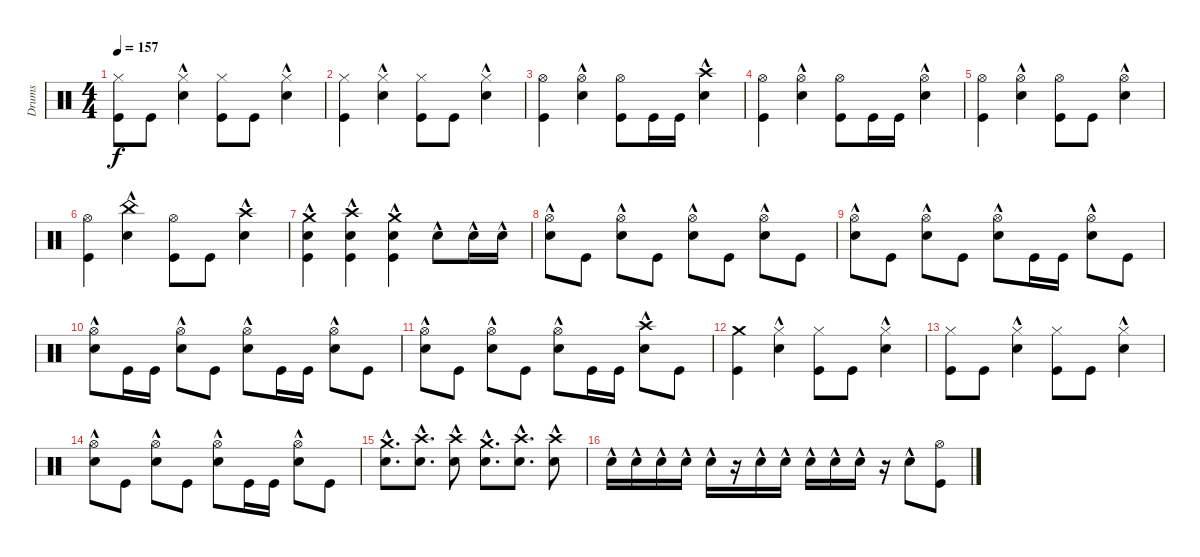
\track ("Drums" "Drums") {solo instrument percussion}
\staff {score}
\articulation defaults
\ts (4 4)
\tempo 157
\clef neutral
\ks c
("Kick (hit)" "Hi-Hat (closed)").8{dy f} "Kick (hit)".8 ("Snare (hit) 2"{hac} "Hi-Hat (closed)").4 ("Kick (hit)" "Hi-Hat (closed)").8 "Kick (hit)".8 ("Snare (hit) 2"{hac} "Hi-Hat (closed)").4 |
("Kick (hit)" "Hi-Hat (closed)").4 ("Snare (hit) 2"{hac} "Hi-Hat (closed)").4 ("Kick (hit)" "Hi-Hat (closed)").8 "Kick (hit)".8 ("Snare (hit) 2"{hac} "Hi-Hat (closed)").4 |
("Kick (hit)" "Hi-Hat (open)").4 ("Snare (hit) 2"{hac} "Hi-Hat (open)").4 ("Kick (hit)" "Hi-Hat (open)").8 "Kick (hit)".16 "Kick (hit)".16 ("Snare (hit) 2"{hac} "Crash high (hit)"{hac}).4 |
("Kick (hit)" "Hi-Hat (open)").4 ("Snare (hit) 2"{hac} "Hi-Hat (open)").4 ("Kick (hit)" "Hi-Hat (open)").8 "Kick (hit)".16 "Kick (hit)".16 ("Snare (hit) 2"{hac} "Hi-Hat (open)").4 |
("Kick (hit)" "Hi-Hat (open)").4 ("Snare (hit) 2"{hac} "Hi-Hat (open)").4 ("Kick (hit)" "Hi-Hat (open)").8 "Kick (hit)".8 ("Snare (hit) 2"{hac} "Hi-Hat (open)").4 |
("Kick (hit)" "Hi-Hat (open)").4 ("Snare (hit) 2"{hac} "China (hit)"{hac}).4 ("Kick (hit)" "Hi-Hat (open)").8 "Kick (hit)".8 ("Snare (hit) 2"{hac} "Crash high (hit)"{hac}).4 |
("Snare (hit) 2"{hac} "Kick (hit)" "Crash medium (hit)").4 ("Kick (hit)" "Snare (hit) 2"{hac} "Crash high (hit)"{hac}).4 ("Snare (hit) 2"{hac} "Kick (hit)" "Crash medium (hit)").4 "Snare (hit) 2"{hac}.8 "Snare (hit) 2"{hac}.16 "Snare (hit) 2"{hac}.16 |
("Snare (hit) 2"{hac} "Hi-Hat (open)").8 "Kick (hit)".8 ("Snare (hit) 2"{hac} "Hi-Hat (open)").8 "Kick (hit)".8 ("Snare (hit) 2"{hac} "Hi-Hat (open)").8 "Kick (hit)".8 ("Snare (hit) 2"{hac} "Hi-Hat (open)").8 "Kick (hit)".8 |
("Snare (hit) 2"{hac} "Hi-Hat (open)").8 "Kick (hit)".8 ("Snare (hit) 2"{hac} "Hi-Hat (open)").8 "Kick (hit)".8 ("Snare (hit) 2"{hac} "Hi-Hat (open)").8 "Kick (hit)".16 "Kick (hit)".16 ("Snare (hit) 2"{hac} "Hi-Hat (open)").8 "Kick (hit)".8 |
("Snare (hit) 2"{hac} "Hi-Hat (open)").8 "Kick (hit)".16 "Kick (hit)".16 ("Snare (hit) 2"{hac} "Hi-Hat (open)").8 "Kick (hit)".8 ("Snare (hit) 2"{hac} "Hi-Hat (open)").8 "Kick (hit)".16 "Kick (hit)".16 ("Snare (hit) 2"{hac} "Hi-Hat (open)").8 "Kick (hit)".8 |
("Snare (hit) 2"{hac} "Hi-Hat (open)").8 "Kick (hit)".8 ("Snare (hit) 2"{hac} "Hi-Hat (open)").8 "Kick (hit)".8 ("Snare (hit) 2"{hac} "Hi-Hat (open)").8 "Kick (hit)".16 "Kick (hit)".16 ("Snare (hit) 2"{hac} "Crash high (hit)"{hac}).8 "Kick (hit)".8 |
("Crash medium (hit)" "Kick (hit)").4 ("Snare (hit) 2"{hac} "Hi-Hat (closed)").4 ("Kick (hit)" "Hi-Hat (closed)").8 "Kick (hit)".8 ("Snare (hit) 2"{hac} "Hi-Hat (closed)").4 |
("Kick (hit)" "Hi-Hat (closed)").8 "Kick (hit)".8 ("Snare (hit) 2"{hac} "Hi-Hat (closed)").4 ("Kick (hit)" "Hi-Hat (closed)").8 "Kick (hit)".8 ("Snare (hit) 2"{hac} "Hi-Hat (closed)").4 |
("Snare (hit) 2"{hac} "Hi-Hat (open)").8 "Kick (hit)".8 ("Snare (hit) 2"{hac} "Hi-Hat (open)").8 "Kick (hit)".8 ("Snare (hit) 2"{hac} "Hi-Hat (open)").8 "Kick (hit)".16 "Kick (hit)".16 ("Snare (hit) 2"{hac} "Hi-Hat (open)").8 "Kick (hit)".8 |
("Crash medium (hit)" "Snare (hit) 2"{hac}).8{d} ("Crash high (hit)"{hac} "Snare (hit) 2"{hac}).8{d} ("Crash high (hit)"{hac} "Snare (hit) 2"{hac}).8 ("Crash medium (hit)" "Snare (hit) 2"{hac}).8{d} ("Crash high (hit)"{hac} "Snare (hit) 2"{hac}).8{d} ("Crash high (hit)"{hac} "Snare (hit) 2"{hac}).8 |
"Snare (hit) 2"{hac}.16 "Snare (hit) 2"{hac}.16 "Snare (hit) 2"{hac}.16 "Snare (hit) 2"{hac}.16 "Snare (hit) 2"{hac}.16 r.16 "Snare (hit) 2"{hac}.16 "Snare (hit) 2"{hac}.16 "Snare (hit) 2"{hac}.16 "Snare (hit) 2"{hac}.16 "Snare (hit) 2"{hac}.16 r.16 "Snare (hit) 2"{hac}.8 ("Kick (hit)" "Hi-Hat (open)").8
